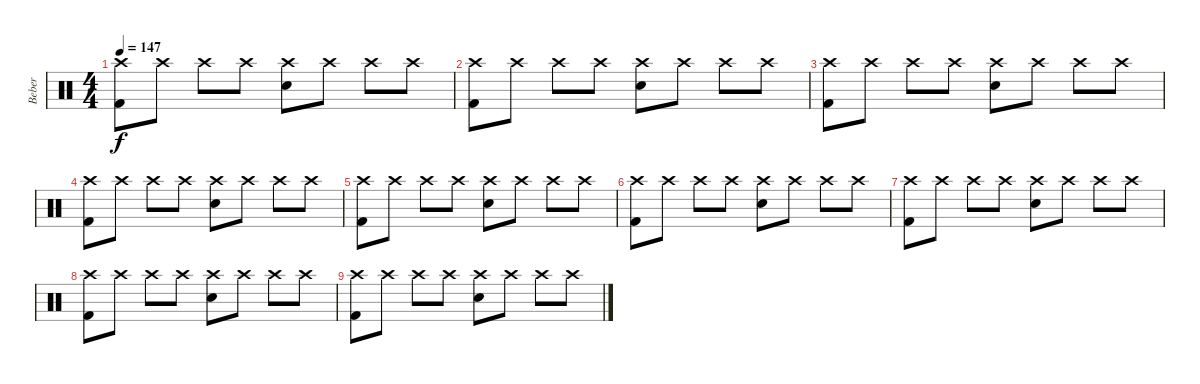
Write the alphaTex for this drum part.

\track ("Beber" "Beber") {instrument percussion}
\staff {score}
\articulation defaults
\ts (4 4)
\tempo 147
\clef neutral
\ks c
("Crash high (hit)" "Kick (hit) 2").8{dy f} "Crash high (hit)".8 "Crash high (hit)".8 "Crash high (hit)".8 ("Crash high (hit)" "Snare (hit) 2").8 "Crash high (hit)".8 "Crash high (hit)".8 "Crash high (hit)".8 |
("Crash high (hit)" "Kick (hit) 2").8 "Crash high (hit)".8 "Crash high (hit)".8 "Crash high (hit)".8 ("Crash high (hit)" "Snare (hit) 2").8 "Crash high (hit)".8 "Crash high (hit)".8 "Crash high (hit)".8 |
("Crash high (hit)" "Kick (hit) 2").8 "Crash high (hit)".8 "Crash high (hit)".8 "Crash high (hit)".8 ("Crash high (hit)" "Snare (hit) 2").8 "Crash high (hit)".8 "Crash high (hit)".8 "Crash high (hit)".8 |
("Crash high (hit)" "Kick (hit) 2").8 "Crash high (hit)".8 "Crash high (hit)".8 "Crash high (hit)".8 ("Crash high (hit)" "Snare (hit) 2").8 "Crash high (hit)".8 "Crash high (hit)".8 "Crash high (hit)".8 |
("Crash high (hit)" "Kick (hit) 2").8 "Crash high (hit)".8 "Crash high (hit)".8 "Crash high (hit)".8 ("Crash high (hit)" "Snare (hit) 2").8 "Crash high (hit)".8 "Crash high (hit)".8 "Crash high (hit)".8 |
("Crash high (hit)" "Kick (hit) 2").8{volume 10} "Crash high (hit)".8 "Crash high (hit)".8 "Crash high (hit)".8 ("Crash high (hit)" "Snare (hit) 2").8 "Crash high (hit)".8 "Crash high (hit)".8 "Crash high (hit)".8 |
("Crash high (hit)" "Kick (hit) 2").8{volume 7} "Crash high (hit)".8 "Crash high (hit)".8 "Crash high (hit)".8 ("Crash high (hit)" "Snare (hit) 2").8 "Crash high (hit)".8 "Crash high (hit)".8 "Crash high (hit)".8 |
("Crash high (hit)" "Kick (hit) 2").8{volume 3} "Crash high (hit)".8 "Crash high (hit)".8 "Crash high (hit)".8 ("Crash high (hit)" "Snare (hit) 2").8 "Crash high (hit)".8 "Crash high (hit)".8 "Crash high (hit)".8 |
("Crash high (hit)" "Kick (hit) 2").8{volume 0} "Crash high (hit)".8 "Crash high (hit)".8 "Crash high (hit)".8 ("Crash high (hit)" "Snare (hit) 2").8 "Crash high (hit)".8 "Crash high (hit)".8 "Crash high (hit)".8
